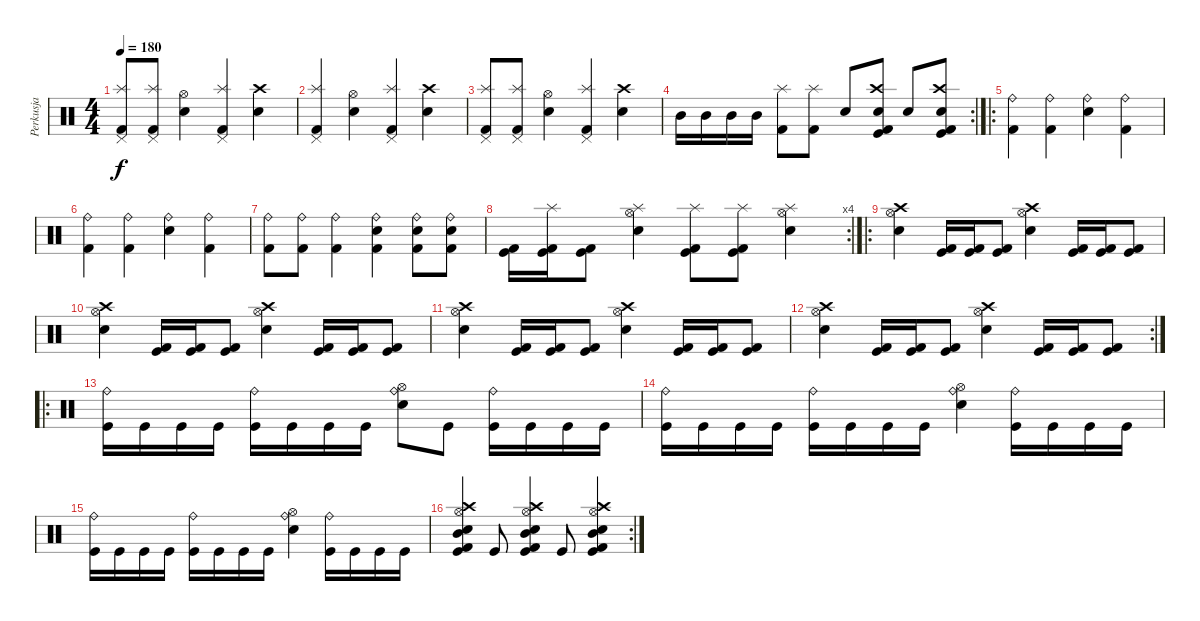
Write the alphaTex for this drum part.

\track ("Perkusja" "Perkusja") {instrument percussion}
\staff {score}
\articulation defaults
\ts (4 4)
\tempo 180
\clef neutral
\ks c
("Pedal Hi-Hat (hit)" "Splash (hit)" "Kick (hit) 2").8{dy f} ("Pedal Hi-Hat (hit)" "Splash (hit)" "Kick (hit) 2").8 ("Hi-Hat (open)" "Snare (hit) 2").4 ("Pedal Hi-Hat (hit)" "Splash (hit)" "Kick (hit) 2").4 ("Crash high (hit)" "Snare (hit) 2").4 |
("Pedal Hi-Hat (hit)" "Splash (hit)" "Kick (hit) 2").4 ("Hi-Hat (open)" "Snare (hit) 2").4 ("Pedal Hi-Hat (hit)" "Splash (hit)" "Kick (hit) 2").4 ("Crash high (hit)" "Snare (hit) 2").4 |
("Pedal Hi-Hat (hit)" "Splash (hit)" "Kick (hit) 2").8 ("Pedal Hi-Hat (hit)" "Splash (hit)" "Kick (hit) 2").8 ("Hi-Hat (open)" "Snare (hit) 2").4 ("Pedal Hi-Hat (hit)" "Splash (hit)" "Kick (hit) 2").4 ("Crash high (hit)" "Snare (hit) 2").4 |
\rc 2 "Mid Tom (hit)".16 "Mid Tom (hit)".16 "Mid Tom (hit)".16 "Mid Tom (hit)".16
("Splash (hit)" "Kick (hit) 2").8 ("Splash (hit)" "Kick (hit) 2").8 "Snare (hit) 2".8 ("Crash high (hit)" "Snare (hit) 2" "Kick (hit) 2" "Kick (hit)").8 "Snare (hit) 2".8 ("Crash high (hit)" "Snare (hit) 2" "Kick (hit) 2" "Kick (hit)").8 |
\ro
("Ride (bell)" "Kick (hit) 2").4 ("Ride (bell)" "Kick (hit) 2").4 ("Ride (bell)" "Snare (hit) 2").4 ("Ride (bell)" "Kick (hit) 2").4 |
("Ride (bell)" "Kick (hit) 2").4 ("Ride (bell)" "Kick (hit) 2").4 ("Ride (bell)" "Snare (hit) 2").4 ("Ride (bell)" "Kick (hit) 2").4 |
("Ride (bell)" "Kick (hit) 2").8 ("Ride (bell)" "Kick (hit) 2").8 ("Ride (bell)" "Kick (hit) 2").4 ("Ride (bell)" "Snare (hit) 2" "Kick (hit) 2").4 ("Ride (bell)" "Snare (hit) 2" "Kick (hit) 2").8 ("Ride (bell)" "Snare (hit) 2" "Kick (hit) 2").8 |
\rc 4
("Kick (hit)" "Kick (hit) 2").16 ("Splash (hit)" "Kick (hit)" "Kick (hit) 2").16 ("Kick (hit)" "Kick (hit) 2").8 ("Splash (hit)" "Hi-Hat (open)" "Snare (hit) 2").4 ("Splash (hit)" "Kick (hit) 2" "Kick (hit)").8 ("Splash (hit)" "Kick (hit) 2" "Kick (hit)").8 ("Splash (hit)" "Hi-Hat (open)" "Snare (hit) 2").4 |
\ro
("Hi-Hat (open)" "Crash high (hit)" "Snare (hit) 2").4 ("Kick (hit) 2" "Kick (hit)").16 ("Kick (hit) 2" "Kick (hit)").16 ("Kick (hit) 2" "Kick (hit)").8 ("Hi-Hat (open)" "Crash high (hit)" "Snare (hit) 2").4 ("Kick (hit) 2" "Kick (hit)").16 ("Kick (hit) 2" "Kick (hit)").16 ("Kick (hit) 2" "Kick (hit)").8 |
("Hi-Hat (open)" "Crash high (hit)" "Snare (hit) 2").4 ("Kick (hit) 2" "Kick (hit)").16 ("Kick (hit) 2" "Kick (hit)").16 ("Kick (hit) 2" "Kick (hit)").8 ("Hi-Hat (open)" "Crash high (hit)" "Snare (hit) 2").4 ("Kick (hit)" "Kick (hit) 2").16 ("Kick (hit)" "Kick (hit) 2").16 ("Kick (hit)" "Kick (hit) 2").8 |
("Hi-Hat (open)" "Crash high (hit)" "Snare (hit) 2").4 ("Kick (hit) 2" "Kick (hit)").16 ("Kick (hit) 2" "Kick (hit)").16 ("Kick (hit) 2" "Kick (hit)").8 ("Hi-Hat (open)" "Crash high (hit)" "Snare (hit) 2").4 ("Kick (hit) 2" "Kick (hit)").16 ("Kick (hit) 2" "Kick (hit)").16 ("Kick (hit) 2" "Kick (hit)").8 |
\rc 2
("Hi-Hat (open)" "Crash high (hit)" "Snare (hit) 2").4 ("Kick (hit) 2" "Kick (hit)").16 ("Kick (hit) 2" "Kick (hit)").16 ("Kick (hit) 2" "Kick (hit)").8 ("Hi-Hat (open)" "Crash high (hit)" "Snare (hit) 2").4 ("Kick (hit)" "Kick (hit) 2").16 ("Kick (hit)" "Kick (hit) 2").16 ("Kick (hit)" "Kick (hit) 2").8 |
\ro
("Ride (bell)" "Kick (hit)").16 "Kick (hit)".16 "Kick (hit)".16 "Kick (hit)".16 ("Ride (bell)" "Kick (hit)").16 "Kick (hit)".16 "Kick (hit)".16 "Kick (hit)".16 ("Ride (bell)" "Hi-Hat (open)" "Snare (hit) 2").8 "Kick (hit)".8 ("Ride (bell)" "Kick (hit)").16 "Kick (hit)".16 "Kick (hit)".16 "Kick (hit)".16 |
("Ride (bell)" "Kick (hit)").16 "Kick (hit)".16 "Kick (hit)".16 "Kick (hit)".16 ("Ride (bell)" "Kick (hit)").16 "Kick (hit)".16 "Kick (hit)".16 "Kick (hit)".16 ("Ride (bell)" "Hi-Hat (open)" "Snare (hit) 2").4 ("Ride (bell)" "Kick (hit)").16 "Kick (hit)".16 "Kick (hit)".16 "Kick (hit)".16 |
("Ride (bell)" "Kick (hit)").16 "Kick (hit)".16 "Kick (hit)".16 "Kick (hit)".16 ("Ride (bell)" "Kick (hit)").16 "Kick (hit)".16 "Kick (hit)".16 "Kick (hit)".16 ("Ride (bell)" "Hi-Hat (open)" "Snare (hit) 2").4 ("Ride (bell)" "Kick (hit)").16 "Kick (hit)".16 "Kick (hit)".16 "Kick (hit)".16 |
\rc 2
("Crash high (hit)" "Hi-Hat (open)" "Snare (hit) 2" "Mid Tom (hit)" "Kick (hit)" "Kick (hit) 2").4 "Kick (hit)".8 ("Crash high (hit)" "Hi-Hat (open)" "Snare (hit) 2" "Mid Tom (hit)" "Kick (hit)" "Kick (hit) 2").4 "Kick (hit)".8 ("Crash high (hit)" "Hi-Hat (open)" "Snare (hit) 2" "Mid Tom (hit)" "Kick (hit)" "Kick (hit) 2").4
